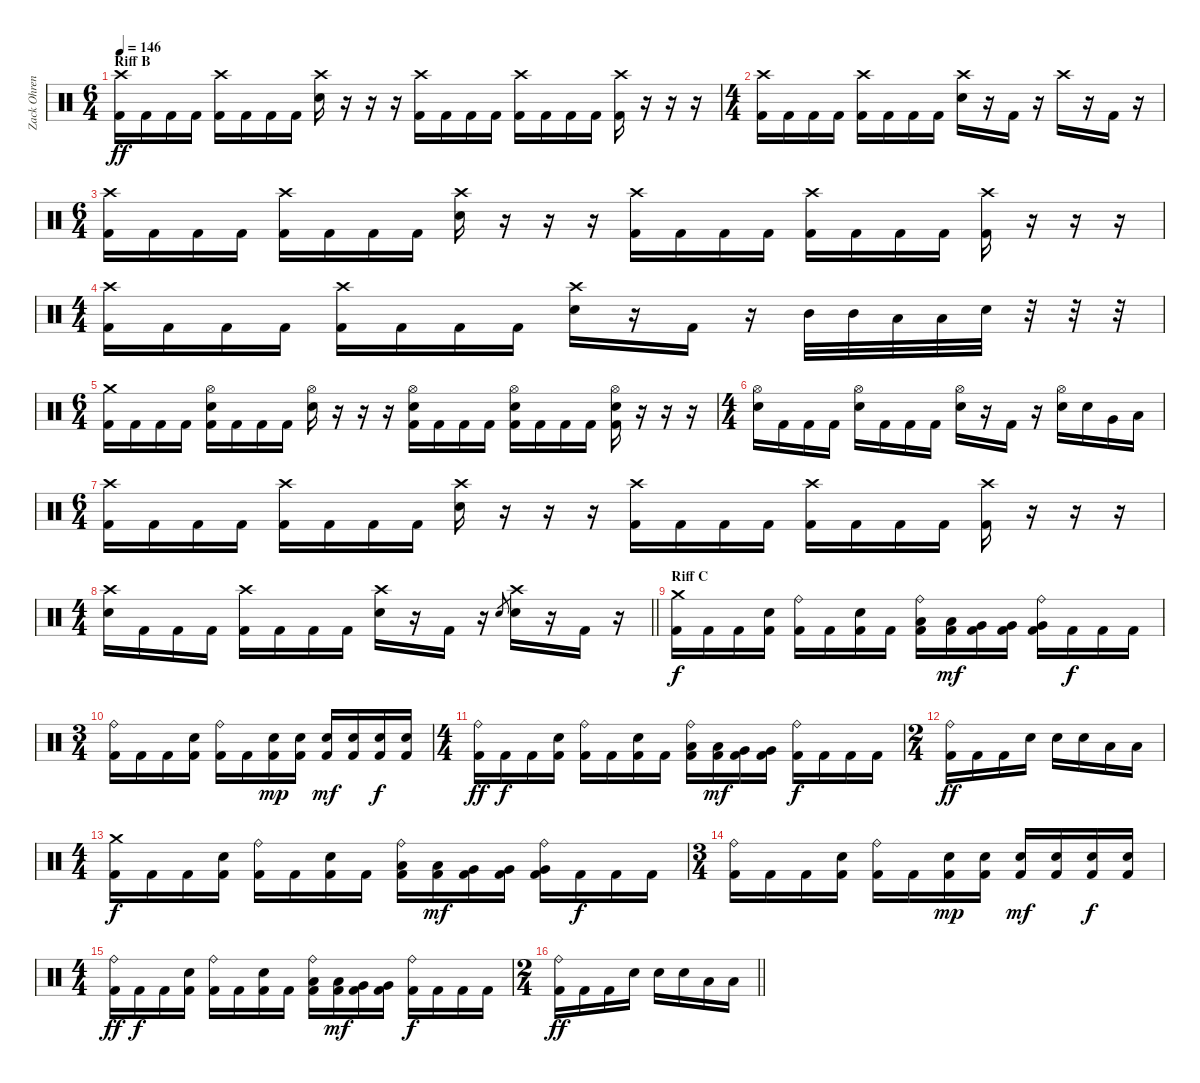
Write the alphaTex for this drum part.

\track ("Zack Ohren" "Zack Ohren") {instrument percussion}
\staff {score}
\articulation defaults
\ts (6 4)
\section ("" "Riff B")
\tempo 146
\clef neutral
\ks c
("Crash high (hit)" "Kick (hit) 2").16{dy ff} "Kick (hit) 2".16 "Kick (hit) 2".16 "Kick (hit) 2".16 ("Crash high (hit)" "Kick (hit) 2").16 "Kick (hit) 2".16 "Kick (hit) 2".16 "Kick (hit) 2".16 ("Crash high (hit)" "Electric Snare (hit)").16 r.16 r.16 r.16 ("Crash high (hit)" "Kick (hit) 2").16 "Kick (hit) 2".16 "Kick (hit) 2".16 "Kick (hit) 2".16 ("Crash high (hit)" "Kick (hit) 2").16 "Kick (hit) 2".16 "Kick (hit) 2".16 "Kick (hit) 2".16 ("Crash high (hit)" "Kick (hit) 2").16 r.16 r.16 r.16 |
\ts (4 4)
("Crash high (hit)" "Kick (hit) 2").16 "Kick (hit) 2".16 "Kick (hit) 2".16 "Kick (hit) 2".16 ("Crash high (hit)" "Kick (hit) 2").16 "Kick (hit) 2".16 "Kick (hit) 2".16 "Kick (hit) 2".16 ("Crash high (hit)" "Electric Snare (hit)").16 r.16 "Kick (hit) 2".16 r.16 "Crash high (hit)".16 r.16 "Kick (hit) 2".16 r.16 |
\ts (6 4)
("Crash high (hit)" "Kick (hit) 2").16 "Kick (hit) 2".16 "Kick (hit) 2".16 "Kick (hit) 2".16 ("Crash high (hit)" "Kick (hit) 2").16 "Kick (hit) 2".16 "Kick (hit) 2".16 "Kick (hit) 2".16 ("Crash high (hit)" "Electric Snare (hit)").16 r.16 r.16 r.16 ("Crash high (hit)" "Kick (hit) 2").16 "Kick (hit) 2".16 "Kick (hit) 2".16 "Kick (hit) 2".16 ("Crash high (hit)" "Kick (hit) 2").16 "Kick (hit) 2".16 "Kick (hit) 2".16 "Kick (hit) 2".16 ("Crash high (hit)" "Kick (hit) 2").16 r.16 r.16 r.16 |
\ts (4 4)
("Crash high (hit)" "Kick (hit) 2").16 "Kick (hit) 2".16 "Kick (hit) 2".16 "Kick (hit) 2".16 ("Crash high (hit)" "Kick (hit) 2").16 "Kick (hit) 2".16 "Kick (hit) 2".16 "Kick (hit) 2".16 ("Crash high (hit)" "Electric Snare (hit)").16 r.16 "Kick (hit) 2".16 r.16 "Mid Tom (hit)".32 "Mid Tom (hit)".32 "Low Tom (hit)".32 "Low Tom (hit)".32 "Electric Snare (hit)".32 r.32 r.32 r.32 |
\ts (6 4)
("Crash medium (hit)" "Kick (hit) 2").16 "Kick (hit) 2".16 "Kick (hit) 2".16 "Kick (hit) 2".16 ("Hi-Hat (open)" "Electric Snare (hit)" "Kick (hit) 2").16 "Kick (hit) 2".16 "Kick (hit) 2".16 "Kick (hit) 2".16 ("Hi-Hat (open)" "Electric Snare (hit)").16 r.16 r.16 r.16 ("Hi-Hat (open)" "Electric Snare (hit)" "Kick (hit) 2").16 "Kick (hit) 2".16 "Kick (hit) 2".16 "Kick (hit) 2".16 ("Hi-Hat (open)" "Electric Snare (hit)" "Kick (hit) 2").16 "Kick (hit) 2".16 "Kick (hit) 2".16 "Kick (hit) 2".16 ("Hi-Hat (open)" "Electric Snare (hit)" "Kick (hit) 2").16 r.16 r.16 r.16 |
\ts (4 4)
("Hi-Hat (open)" "Electric Snare (hit)").16 "Kick (hit) 2".16 "Kick (hit) 2".16 "Kick (hit) 2".16 ("Hi-Hat (open)" "Electric Snare (hit)").16 "Kick (hit) 2".16 "Kick (hit) 2".16 "Kick (hit) 2".16 ("Hi-Hat (open)" "Electric Snare (hit)").16 r.16 "Kick (hit) 2".16 r.16 ("Hi-Hat (open)" "Electric Snare (hit)").16 "Electric Snare (hit)".16 "Very Low Tom (hit)".16 "Low Floor Tom (hit)".16 |
\ts (6 4)
("Crash high (hit)" "Kick (hit) 2").16 "Kick (hit) 2".16 "Kick (hit) 2".16 "Kick (hit) 2".16 ("Crash high (hit)" "Kick (hit) 2").16 "Kick (hit) 2".16 "Kick (hit) 2".16 "Kick (hit) 2".16 ("Crash high (hit)" "Electric Snare (hit)").16 r.16 r.16 r.16 ("Crash high (hit)" "Kick (hit) 2").16 "Kick (hit) 2".16 "Kick (hit) 2".16 "Kick (hit) 2".16 ("Crash high (hit)" "Kick (hit) 2").16 "Kick (hit) 2".16 "Kick (hit) 2".16 "Kick (hit) 2".16 ("Crash high (hit)" "Kick (hit) 2").16 r.16 r.16 r.16 |
\ts (4 4)
\barLineRight lightlight
("Crash high (hit)" "Electric Snare (hit)").16 "Kick (hit) 2".16 "Kick (hit) 2".16 "Kick (hit) 2".16 ("Crash high (hit)" "Kick (hit) 2").16 "Kick (hit) 2".16 "Kick (hit) 2".16 "Kick (hit) 2".16 ("Crash high (hit)" "Electric Snare (hit)").16 r.16 "Kick (hit) 2".16 r.16 "Electric Snare (hit)".8{gr} ("Crash high (hit)" "Electric Snare (hit)").16 r.16 "Kick (hit) 2".16 r.16 |
\section ("" "Riff C")
("Crash medium (hit)" "Kick (hit) 2").16{dy f} "Kick (hit) 2".16 "Kick (hit) 2".16 ("Electric Snare (hit)" "Kick (hit) 2").16 ("Kick (hit) 2" "Ride (bell)").16 "Kick (hit) 2".16 ("Electric Snare (hit)" "Kick (hit) 2").16 "Kick (hit) 2".16 ("Low Tom (hit)" "Kick (hit) 2" "Ride (bell)").16 ("Low Tom (hit)" "Kick (hit) 2").16{dy mf} ("Very Low Tom (hit)" "Kick (hit) 2").16 ("Very Low Tom (hit)" "Kick (hit) 2").16 ("Very Low Tom (hit)" "Kick (hit) 2" "Ride (bell)").16 "Kick (hit) 2".16{dy f} "Kick (hit) 2".16 "Kick (hit) 2".16 |
\ts (3 4)
("Kick (hit) 2" "Ride (bell)").16 "Kick (hit) 2".16 "Kick (hit) 2".16 ("Electric Snare (hit)" "Kick (hit) 2").16 ("Kick (hit) 2" "Ride (bell)").16 "Kick (hit) 2".16 ("Electric Snare (hit)" "Kick (hit) 2").16{dy mp} ("Electric Snare (hit)" "Kick (hit) 2").16 ("Electric Snare (hit)" "Kick (hit) 2").16{dy mf} ("Electric Snare (hit)" "Kick (hit) 2").16 ("Electric Snare (hit)" "Kick (hit) 2").16{dy f} ("Electric Snare (hit)" "Kick (hit) 2").16 |
\ts (4 4)
("Ride (bell)" "Kick (hit) 2").16{dy ff} "Kick (hit) 2".16{dy f} "Kick (hit) 2".16 ("Electric Snare (hit)" "Kick (hit) 2").16 ("Kick (hit) 2" "Ride (bell)").16 "Kick (hit) 2".16 ("Electric Snare (hit)" "Kick (hit) 2").16 "Kick (hit) 2".16 ("Low Tom (hit)" "Kick (hit) 2" "Ride (bell)").16 ("Low Tom (hit)" "Kick (hit) 2").16{dy mf} ("Very Low Tom (hit)" "Kick (hit) 2").16 ("Very Low Tom (hit)" "Kick (hit) 2").16 ("Kick (hit) 2" "Ride (bell)").16{dy f} "Kick (hit) 2".16 "Kick (hit) 2".16 "Kick (hit) 2".16 |
\ts (2 4)
("Kick (hit) 2" "Ride (bell)").16{dy ff} "Kick (hit) 2".16 "Kick (hit) 2".16 "Electric Snare (hit)".16 "Electric Snare (hit)".16 "Electric Snare (hit)".16 "Low Tom (hit)".16 "Low Tom (hit)".16 |
\ts (4 4)
("Crash medium (hit)" "Kick (hit) 2").16{dy f} "Kick (hit) 2".16 "Kick (hit) 2".16 ("Electric Snare (hit)" "Kick (hit) 2").16 ("Kick (hit) 2" "Ride (bell)").16 "Kick (hit) 2".16 ("Electric Snare (hit)" "Kick (hit) 2").16 "Kick (hit) 2".16 ("Low Tom (hit)" "Kick (hit) 2" "Ride (bell)").16 ("Low Tom (hit)" "Kick (hit) 2").16{dy mf} ("Very Low Tom (hit)" "Kick (hit) 2").16 ("Very Low Tom (hit)" "Kick (hit) 2").16 ("Very Low Tom (hit)" "Kick (hit) 2" "Ride (bell)").16 "Kick (hit) 2".16{dy f} "Kick (hit) 2".16 "Kick (hit) 2".16 |
\ts (3 4)
("Kick (hit) 2" "Ride (bell)").16 "Kick (hit) 2".16 "Kick (hit) 2".16 ("Electric Snare (hit)" "Kick (hit) 2").16 ("Kick (hit) 2" "Ride (bell)").16 "Kick (hit) 2".16 ("Electric Snare (hit)" "Kick (hit) 2").16{dy mp} ("Electric Snare (hit)" "Kick (hit) 2").16 ("Electric Snare (hit)" "Kick (hit) 2").16{dy mf} ("Electric Snare (hit)" "Kick (hit) 2").16 ("Electric Snare (hit)" "Kick (hit) 2").16{dy f} ("Electric Snare (hit)" "Kick (hit) 2").16 |
\ts (4 4)
("Ride (bell)" "Kick (hit) 2").16{dy ff} "Kick (hit) 2".16{dy f} "Kick (hit) 2".16 ("Electric Snare (hit)" "Kick (hit) 2").16 ("Kick (hit) 2" "Ride (bell)").16 "Kick (hit) 2".16 ("Electric Snare (hit)" "Kick (hit) 2").16 "Kick (hit) 2".16 ("Low Tom (hit)" "Kick (hit) 2" "Ride (bell)").16 ("Low Tom (hit)" "Kick (hit) 2").16{dy mf} ("Very Low Tom (hit)" "Kick (hit) 2").16 ("Very Low Tom (hit)" "Kick (hit) 2").16 ("Kick (hit) 2" "Ride (bell)").16{dy f} "Kick (hit) 2".16 "Kick (hit) 2".16 "Kick (hit) 2".16 |
\ts (2 4)
\barLineRight lightlight
("Kick (hit) 2" "Ride (bell)").16{dy ff} "Kick (hit) 2".16 "Kick (hit) 2".16 "Electric Snare (hit)".16 "Electric Snare (hit)".16 "Electric Snare (hit)".16 "Low Tom (hit)".16 "Low Tom (hit)".16
